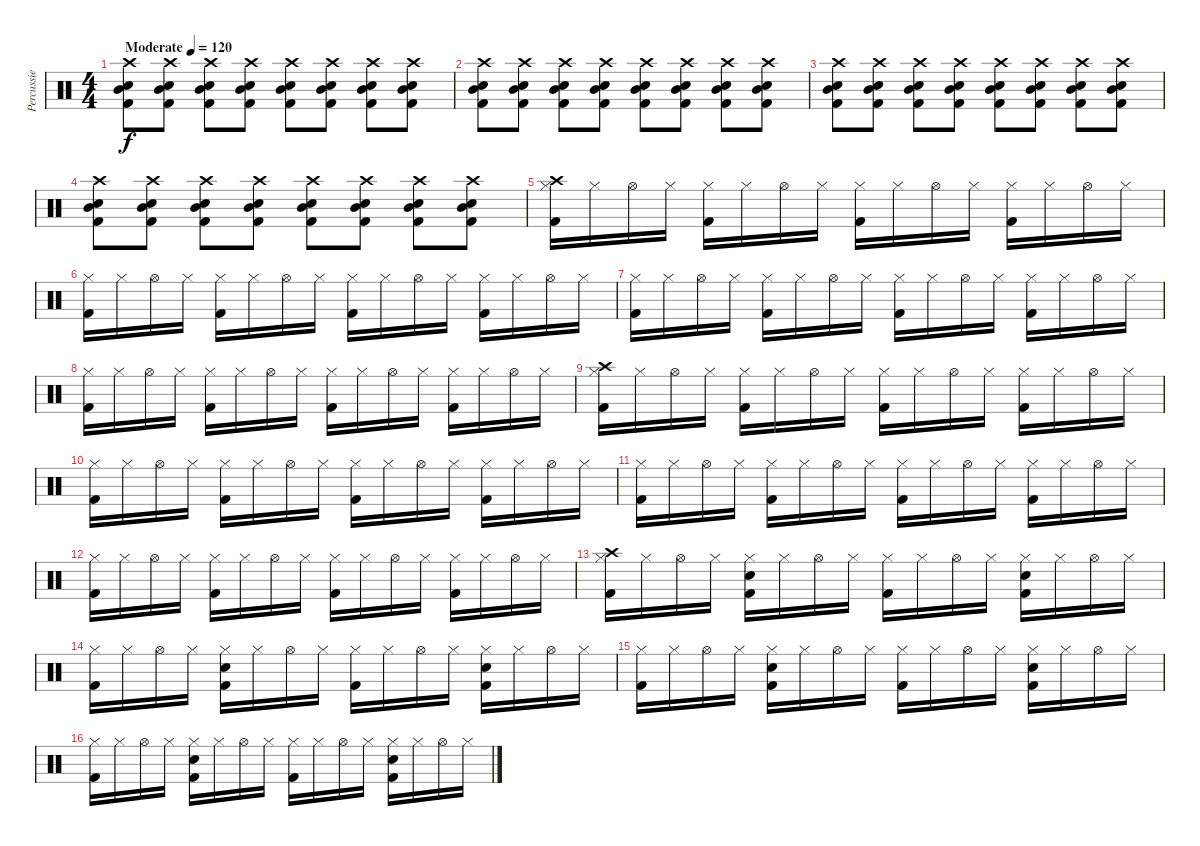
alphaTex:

\track ("Percussie" "Percussie") {instrument percussion}
\staff {score}
\articulation defaults
\ts (4 4)
\tempo (120 "Moderate")
\clef neutral
\ks c
("Kick (hit) 2" "Electric Snare (hit)" "Mid Tom (hit)" "Crash high (hit)").8{dy f} ("Kick (hit) 2" "Electric Snare (hit)" "Mid Tom (hit)" "Crash high (hit)").8 ("Kick (hit) 2" "Electric Snare (hit)" "Mid Tom (hit)" "Crash high (hit)").8 ("Kick (hit) 2" "Electric Snare (hit)" "Mid Tom (hit)" "Crash high (hit)").8 ("Kick (hit) 2" "Electric Snare (hit)" "Mid Tom (hit)" "Crash high (hit)").8 ("Kick (hit) 2" "Electric Snare (hit)" "Mid Tom (hit)" "Crash high (hit)").8 ("Kick (hit) 2" "Electric Snare (hit)" "Mid Tom (hit)" "Crash high (hit)").8 ("Kick (hit) 2" "Electric Snare (hit)" "Mid Tom (hit)" "Crash high (hit)").8 |
("Kick (hit) 2" "Electric Snare (hit)" "Mid Tom (hit)" "Crash high (hit)").8 ("Kick (hit) 2" "Electric Snare (hit)" "Mid Tom (hit)" "Crash high (hit)").8 ("Kick (hit) 2" "Electric Snare (hit)" "Mid Tom (hit)" "Crash high (hit)").8 ("Kick (hit) 2" "Electric Snare (hit)" "Mid Tom (hit)" "Crash high (hit)").8 ("Kick (hit) 2" "Electric Snare (hit)" "Mid Tom (hit)" "Crash high (hit)").8 ("Kick (hit) 2" "Electric Snare (hit)" "Mid Tom (hit)" "Crash high (hit)").8 ("Kick (hit) 2" "Electric Snare (hit)" "Mid Tom (hit)" "Crash high (hit)").8 ("Kick (hit) 2" "Electric Snare (hit)" "Mid Tom (hit)" "Crash high (hit)").8 |
("Kick (hit) 2" "Electric Snare (hit)" "Mid Tom (hit)" "Crash high (hit)").8 ("Kick (hit) 2" "Electric Snare (hit)" "Mid Tom (hit)" "Crash high (hit)").8 ("Kick (hit) 2" "Electric Snare (hit)" "Mid Tom (hit)" "Crash high (hit)").8 ("Kick (hit) 2" "Electric Snare (hit)" "Mid Tom (hit)" "Crash high (hit)").8 ("Kick (hit) 2" "Electric Snare (hit)" "Mid Tom (hit)" "Crash high (hit)").8 ("Kick (hit) 2" "Electric Snare (hit)" "Mid Tom (hit)" "Crash high (hit)").8 ("Kick (hit) 2" "Electric Snare (hit)" "Mid Tom (hit)" "Crash high (hit)").8 ("Kick (hit) 2" "Electric Snare (hit)" "Mid Tom (hit)" "Crash high (hit)").8 |
("Kick (hit) 2" "Electric Snare (hit)" "Mid Tom (hit)" "Crash high (hit)").8 ("Kick (hit) 2" "Electric Snare (hit)" "Mid Tom (hit)" "Crash high (hit)").8 ("Kick (hit) 2" "Electric Snare (hit)" "Mid Tom (hit)" "Crash high (hit)").8 ("Kick (hit) 2" "Electric Snare (hit)" "Mid Tom (hit)" "Crash high (hit)").8 ("Kick (hit) 2" "Electric Snare (hit)" "Mid Tom (hit)" "Crash high (hit)").8 ("Kick (hit) 2" "Electric Snare (hit)" "Mid Tom (hit)" "Crash high (hit)").8 ("Kick (hit) 2" "Electric Snare (hit)" "Mid Tom (hit)" "Crash high (hit)").8 ("Kick (hit) 2" "Electric Snare (hit)" "Mid Tom (hit)" "Crash high (hit)").8 |
("Kick (hit) 2" "Hi-Hat (closed)" "Crash high (hit)").16 "Hi-Hat (closed)".16 "Hi-Hat (open)".16 "Hi-Hat (closed)".16 ("Kick (hit) 2" "Hi-Hat (closed)").16 "Hi-Hat (closed)".16 "Hi-Hat (open)".16 "Hi-Hat (closed)".16 ("Kick (hit) 2" "Hi-Hat (closed)").16 "Hi-Hat (closed)".16 "Hi-Hat (open)".16 "Hi-Hat (closed)".16 ("Kick (hit) 2" "Hi-Hat (closed)").16 "Hi-Hat (closed)".16 "Hi-Hat (open)".16 "Hi-Hat (closed)".16 |
("Kick (hit) 2" "Hi-Hat (closed)").16 "Hi-Hat (closed)".16 "Hi-Hat (open)".16 "Hi-Hat (closed)".16 ("Kick (hit) 2" "Hi-Hat (closed)").16 "Hi-Hat (closed)".16 "Hi-Hat (open)".16 "Hi-Hat (closed)".16 ("Kick (hit) 2" "Hi-Hat (closed)").16 "Hi-Hat (closed)".16 "Hi-Hat (open)".16 "Hi-Hat (closed)".16 ("Kick (hit) 2" "Hi-Hat (closed)").16 "Hi-Hat (closed)".16 "Hi-Hat (open)".16 "Hi-Hat (closed)".16 |
("Kick (hit) 2" "Hi-Hat (closed)").16 "Hi-Hat (closed)".16 "Hi-Hat (open)".16 "Hi-Hat (closed)".16 ("Kick (hit) 2" "Hi-Hat (closed)").16 "Hi-Hat (closed)".16 "Hi-Hat (open)".16 "Hi-Hat (closed)".16 ("Kick (hit) 2" "Hi-Hat (closed)").16 "Hi-Hat (closed)".16 "Hi-Hat (open)".16 "Hi-Hat (closed)".16 ("Kick (hit) 2" "Hi-Hat (closed)").16 "Hi-Hat (closed)".16 "Hi-Hat (open)".16 "Hi-Hat (closed)".16 |
("Kick (hit) 2" "Hi-Hat (closed)").16 "Hi-Hat (closed)".16 "Hi-Hat (open)".16 "Hi-Hat (closed)".16 ("Kick (hit) 2" "Hi-Hat (closed)").16 "Hi-Hat (closed)".16 "Hi-Hat (open)".16 "Hi-Hat (closed)".16 ("Kick (hit) 2" "Hi-Hat (closed)").16 "Hi-Hat (closed)".16 "Hi-Hat (open)".16 "Hi-Hat (closed)".16 ("Kick (hit) 2" "Hi-Hat (closed)").16 "Hi-Hat (closed)".16 "Hi-Hat (open)".16 "Hi-Hat (closed)".16 |
("Kick (hit) 2" "Hi-Hat (closed)" "Crash high (hit)").16 "Hi-Hat (closed)".16 "Hi-Hat (open)".16 "Hi-Hat (closed)".16 ("Kick (hit) 2" "Hi-Hat (closed)").16 "Hi-Hat (closed)".16 "Hi-Hat (open)".16 "Hi-Hat (closed)".16 ("Kick (hit) 2" "Hi-Hat (closed)").16 "Hi-Hat (closed)".16 "Hi-Hat (open)".16 "Hi-Hat (closed)".16 ("Kick (hit) 2" "Hi-Hat (closed)").16 "Hi-Hat (closed)".16 "Hi-Hat (open)".16 "Hi-Hat (closed)".16 |
("Kick (hit) 2" "Hi-Hat (closed)").16 "Hi-Hat (closed)".16 "Hi-Hat (open)".16 "Hi-Hat (closed)".16 ("Kick (hit) 2" "Hi-Hat (closed)").16 "Hi-Hat (closed)".16 "Hi-Hat (open)".16 "Hi-Hat (closed)".16 ("Kick (hit) 2" "Hi-Hat (closed)").16 "Hi-Hat (closed)".16 "Hi-Hat (open)".16 "Hi-Hat (closed)".16 ("Kick (hit) 2" "Hi-Hat (closed)").16 "Hi-Hat (closed)".16 "Hi-Hat (open)".16 "Hi-Hat (closed)".16 |
("Kick (hit) 2" "Hi-Hat (closed)").16 "Hi-Hat (closed)".16 "Hi-Hat (open)".16 "Hi-Hat (closed)".16 ("Kick (hit) 2" "Hi-Hat (closed)").16 "Hi-Hat (closed)".16 "Hi-Hat (open)".16 "Hi-Hat (closed)".16 ("Kick (hit) 2" "Hi-Hat (closed)").16 "Hi-Hat (closed)".16 "Hi-Hat (open)".16 "Hi-Hat (closed)".16 ("Kick (hit) 2" "Hi-Hat (closed)").16 "Hi-Hat (closed)".16 "Hi-Hat (open)".16 "Hi-Hat (closed)".16 |
("Kick (hit) 2" "Hi-Hat (closed)").16 "Hi-Hat (closed)".16 "Hi-Hat (open)".16 "Hi-Hat (closed)".16 ("Kick (hit) 2" "Hi-Hat (closed)").16 "Hi-Hat (closed)".16 "Hi-Hat (open)".16 "Hi-Hat (closed)".16 ("Kick (hit) 2" "Hi-Hat (closed)").16 "Hi-Hat (closed)".16 "Hi-Hat (open)".16 "Hi-Hat (closed)".16 ("Kick (hit) 2" "Hi-Hat (closed)").16 "Hi-Hat (closed)".16 "Hi-Hat (open)".16 "Hi-Hat (closed)".16 |
("Kick (hit) 2" "Hi-Hat (closed)" "Crash high (hit)").16 "Hi-Hat (closed)".16 "Hi-Hat (open)".16 "Hi-Hat (closed)".16 ("Kick (hit) 2" "Hi-Hat (closed)" "Snare (hit) 2").16 "Hi-Hat (closed)".16 "Hi-Hat (open)".16 "Hi-Hat (closed)".16 ("Kick (hit) 2" "Hi-Hat (closed)").16 "Hi-Hat (closed)".16 "Hi-Hat (open)".16 "Hi-Hat (closed)".16 ("Kick (hit) 2" "Hi-Hat (closed)" "Snare (hit) 2").16 "Hi-Hat (closed)".16 "Hi-Hat (open)".16 "Hi-Hat (closed)".16 |
("Kick (hit) 2" "Hi-Hat (closed)").16 "Hi-Hat (closed)".16 "Hi-Hat (open)".16 "Hi-Hat (closed)".16 ("Kick (hit) 2" "Hi-Hat (closed)" "Snare (hit) 2").16 "Hi-Hat (closed)".16 "Hi-Hat (open)".16 "Hi-Hat (closed)".16 ("Kick (hit) 2" "Hi-Hat (closed)").16 "Hi-Hat (closed)".16 "Hi-Hat (open)".16 "Hi-Hat (closed)".16 ("Kick (hit) 2" "Hi-Hat (closed)" "Snare (hit) 2").16 "Hi-Hat (closed)".16 "Hi-Hat (open)".16 "Hi-Hat (closed)".16 |
("Kick (hit) 2" "Hi-Hat (closed)").16 "Hi-Hat (closed)".16 "Hi-Hat (open)".16 "Hi-Hat (closed)".16 ("Kick (hit) 2" "Hi-Hat (closed)" "Snare (hit) 2").16 "Hi-Hat (closed)".16 "Hi-Hat (open)".16 "Hi-Hat (closed)".16 ("Kick (hit) 2" "Hi-Hat (closed)").16 "Hi-Hat (closed)".16 "Hi-Hat (open)".16 "Hi-Hat (closed)".16 ("Kick (hit) 2" "Hi-Hat (closed)" "Snare (hit) 2").16 "Hi-Hat (closed)".16 "Hi-Hat (open)".16 "Hi-Hat (closed)".16 |
("Kick (hit) 2" "Hi-Hat (closed)").16 "Hi-Hat (closed)".16 "Hi-Hat (open)".16 "Hi-Hat (closed)".16 ("Kick (hit) 2" "Hi-Hat (closed)" "Snare (hit) 2").16 "Hi-Hat (closed)".16 "Hi-Hat (open)".16 "Hi-Hat (closed)".16 ("Kick (hit) 2" "Hi-Hat (closed)").16 "Hi-Hat (closed)".16 "Hi-Hat (open)".16 "Hi-Hat (closed)".16 ("Kick (hit) 2" "Hi-Hat (closed)" "Snare (hit) 2").16 "Hi-Hat (closed)".16 "Hi-Hat (open)".16 "Hi-Hat (closed)".16
